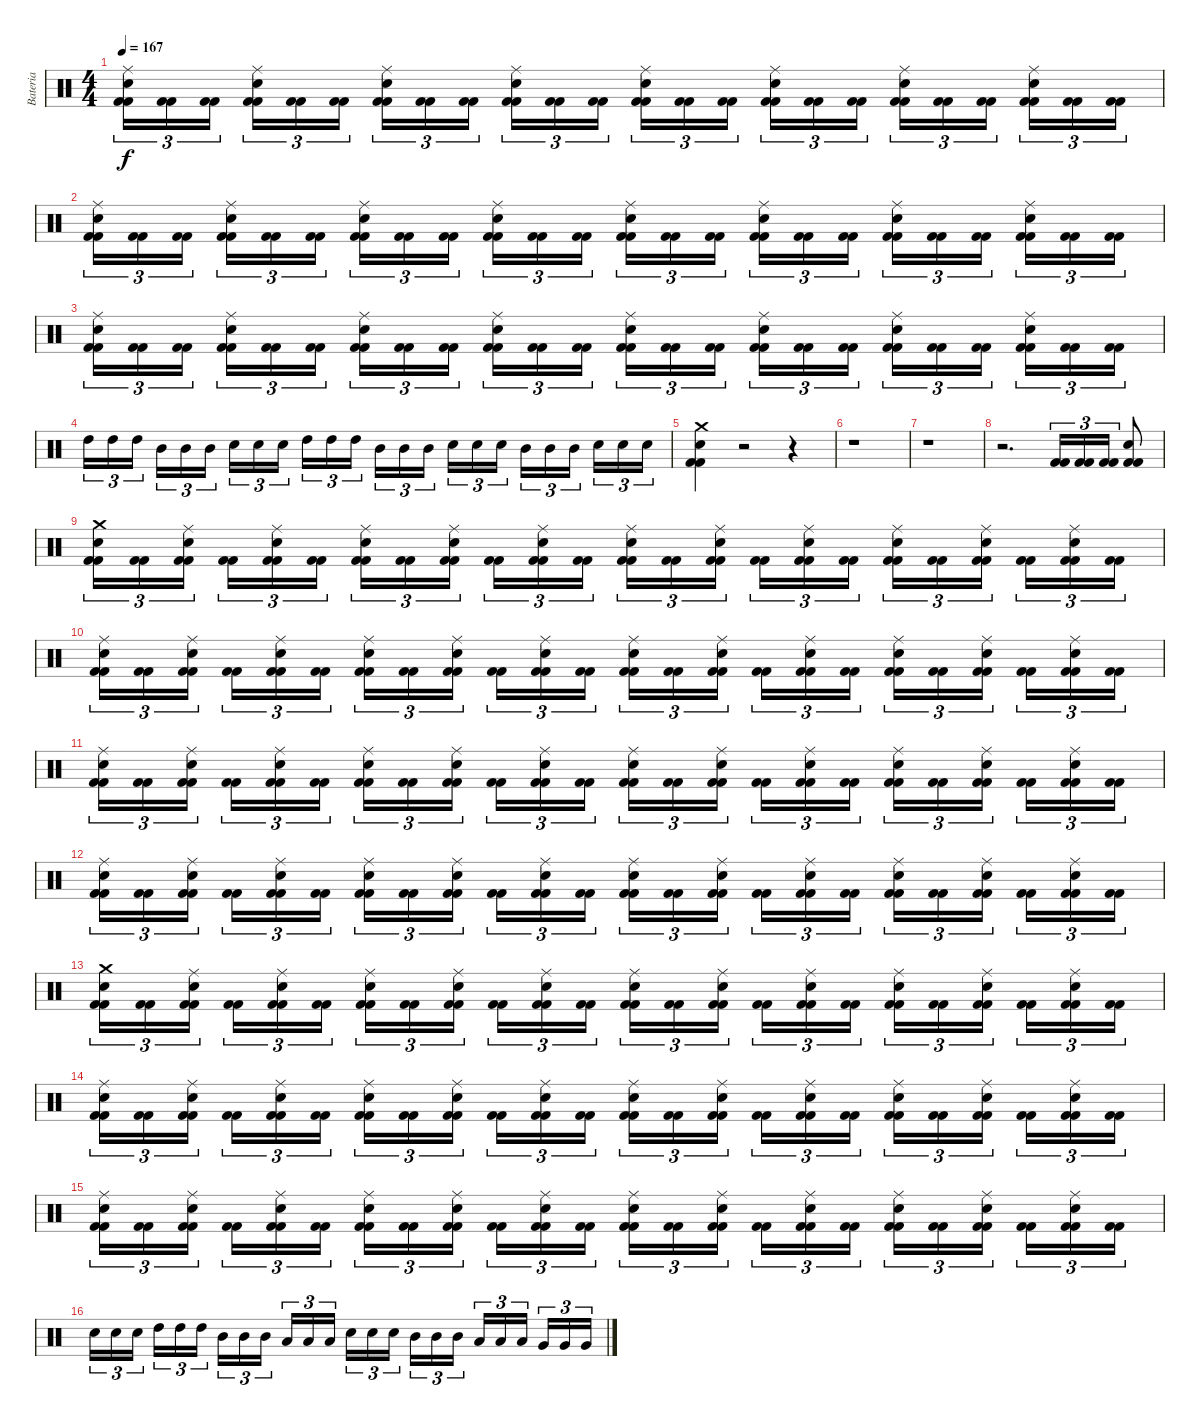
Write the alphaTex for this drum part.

\track ("Bateria" "Bateria") {instrument percussion}
\staff {score}
\articulation defaults
\ts (4 4)
\tempo 167
\clef neutral
\ks c
("Kick (hit) 2" "Kick (hit) 2" "Snare (hit) 2" "Ride (middle)").16{tu (3 2) dy f} ("Kick (hit) 2" "Kick (hit) 2").16{tu (3 2)} ("Kick (hit) 2" "Kick (hit) 2").16{tu (3 2)} ("Kick (hit) 2" "Kick (hit) 2" "Snare (hit) 2" "Ride (middle)").16{tu (3 2)} ("Kick (hit) 2" "Kick (hit) 2").16{tu (3 2)} ("Kick (hit) 2" "Kick (hit) 2").16{tu (3 2)} ("Kick (hit) 2" "Kick (hit) 2" "Snare (hit) 2" "Ride (middle)").16{tu (3 2)} ("Kick (hit) 2" "Kick (hit) 2").16{tu (3 2)} ("Kick (hit) 2" "Kick (hit) 2").16{tu (3 2)} ("Kick (hit) 2" "Kick (hit) 2" "Snare (hit) 2" "Ride (middle)").16{tu (3 2)} ("Kick (hit) 2" "Kick (hit) 2").16{tu (3 2)} ("Kick (hit) 2" "Kick (hit) 2").16{tu (3 2)} ("Kick (hit) 2" "Kick (hit) 2" "Snare (hit) 2" "Ride (middle)").16{tu (3 2)} ("Kick (hit) 2" "Kick (hit) 2").16{tu (3 2)} ("Kick (hit) 2" "Kick (hit) 2").16{tu (3 2)} ("Kick (hit) 2" "Kick (hit) 2" "Snare (hit) 2" "Ride (middle)").16{tu (3 2)} ("Kick (hit) 2" "Kick (hit) 2").16{tu (3 2)} ("Kick (hit) 2" "Kick (hit) 2").16{tu (3 2)} ("Kick (hit) 2" "Kick (hit) 2" "Snare (hit) 2" "Ride (middle)").16{tu (3 2)} ("Kick (hit) 2" "Kick (hit) 2").16{tu (3 2)} ("Kick (hit) 2" "Kick (hit) 2").16{tu (3 2)} ("Kick (hit) 2" "Kick (hit) 2" "Snare (hit) 2" "Ride (middle)").16{tu (3 2)} ("Kick (hit) 2" "Kick (hit) 2").16{tu (3 2)} ("Kick (hit) 2" "Kick (hit) 2").16{tu (3 2)} |
("Kick (hit) 2" "Kick (hit) 2" "Snare (hit) 2" "Ride (middle)").16{tu (3 2)} ("Kick (hit) 2" "Kick (hit) 2").16{tu (3 2)} ("Kick (hit) 2" "Kick (hit) 2").16{tu (3 2)} ("Kick (hit) 2" "Kick (hit) 2" "Snare (hit) 2" "Ride (middle)").16{tu (3 2)} ("Kick (hit) 2" "Kick (hit) 2").16{tu (3 2)} ("Kick (hit) 2" "Kick (hit) 2").16{tu (3 2)} ("Kick (hit) 2" "Kick (hit) 2" "Snare (hit) 2" "Ride (middle)").16{tu (3 2)} ("Kick (hit) 2" "Kick (hit) 2").16{tu (3 2)} ("Kick (hit) 2" "Kick (hit) 2").16{tu (3 2)} ("Kick (hit) 2" "Kick (hit) 2" "Snare (hit) 2" "Ride (middle)").16{tu (3 2)} ("Kick (hit) 2" "Kick (hit) 2").16{tu (3 2)} ("Kick (hit) 2" "Kick (hit) 2").16{tu (3 2)} ("Kick (hit) 2" "Kick (hit) 2" "Snare (hit) 2" "Ride (middle)").16{tu (3 2)} ("Kick (hit) 2" "Kick (hit) 2").16{tu (3 2)} ("Kick (hit) 2" "Kick (hit) 2").16{tu (3 2)} ("Kick (hit) 2" "Kick (hit) 2" "Snare (hit) 2" "Ride (middle)").16{tu (3 2)} ("Kick (hit) 2" "Kick (hit) 2").16{tu (3 2)} ("Kick (hit) 2" "Kick (hit) 2").16{tu (3 2)} ("Kick (hit) 2" "Kick (hit) 2" "Snare (hit) 2" "Ride (middle)").16{tu (3 2)} ("Kick (hit) 2" "Kick (hit) 2").16{tu (3 2)} ("Kick (hit) 2" "Kick (hit) 2").16{tu (3 2)} ("Kick (hit) 2" "Kick (hit) 2" "Snare (hit) 2" "Ride (middle)").16{tu (3 2)} ("Kick (hit) 2" "Kick (hit) 2").16{tu (3 2)} ("Kick (hit) 2" "Kick (hit) 2").16{tu (3 2)} |
("Kick (hit) 2" "Kick (hit) 2" "Snare (hit) 2" "Ride (middle)").16{tu (3 2)} ("Kick (hit) 2" "Kick (hit) 2").16{tu (3 2)} ("Kick (hit) 2" "Kick (hit) 2").16{tu (3 2)} ("Kick (hit) 2" "Kick (hit) 2" "Snare (hit) 2" "Ride (middle)").16{tu (3 2)} ("Kick (hit) 2" "Kick (hit) 2").16{tu (3 2)} ("Kick (hit) 2" "Kick (hit) 2").16{tu (3 2)} ("Kick (hit) 2" "Kick (hit) 2" "Snare (hit) 2" "Ride (middle)").16{tu (3 2)} ("Kick (hit) 2" "Kick (hit) 2").16{tu (3 2)} ("Kick (hit) 2" "Kick (hit) 2").16{tu (3 2)} ("Kick (hit) 2" "Kick (hit) 2" "Snare (hit) 2" "Ride (middle)").16{tu (3 2)} ("Kick (hit) 2" "Kick (hit) 2").16{tu (3 2)} ("Kick (hit) 2" "Kick (hit) 2").16{tu (3 2)} ("Kick (hit) 2" "Kick (hit) 2" "Snare (hit) 2" "Ride (middle)").16{tu (3 2)} ("Kick (hit) 2" "Kick (hit) 2").16{tu (3 2)} ("Kick (hit) 2" "Kick (hit) 2").16{tu (3 2)} ("Kick (hit) 2" "Kick (hit) 2" "Snare (hit) 2" "Ride (middle)").16{tu (3 2)} ("Kick (hit) 2" "Kick (hit) 2").16{tu (3 2)} ("Kick (hit) 2" "Kick (hit) 2").16{tu (3 2)} ("Kick (hit) 2" "Kick (hit) 2" "Snare (hit) 2" "Ride (middle)").16{tu (3 2)} ("Kick (hit) 2" "Kick (hit) 2").16{tu (3 2)} ("Kick (hit) 2" "Kick (hit) 2").16{tu (3 2)} ("Kick (hit) 2" "Kick (hit) 2" "Snare (hit) 2" "Ride (middle)").16{tu (3 2)} ("Kick (hit) 2" "Kick (hit) 2").16{tu (3 2)} ("Kick (hit) 2" "Kick (hit) 2").16{tu (3 2)} |
"High Tom (hit)".16{tu (3 2)} "High Tom (hit)".16{tu (3 2)} "High Tom (hit)".16{tu (3 2)} "Mid Tom (hit)".16{tu (3 2)} "Mid Tom (hit)".16{tu (3 2)} "Mid Tom (hit)".16{tu (3 2)} "Snare (hit) 2".16{tu (3 2)} "Snare (hit) 2".16{tu (3 2)} "Snare (hit) 2".16{tu (3 2)} "High Tom (hit)".16{tu (3 2)} "High Tom (hit)".16{tu (3 2)} "High Tom (hit)".16{tu (3 2)} "Mid Tom (hit)".16{tu (3 2)} "Mid Tom (hit)".16{tu (3 2)} "Mid Tom (hit)".16{tu (3 2)} "Snare (hit) 2".16{tu (3 2)} "Snare (hit) 2".16{tu (3 2)} "Snare (hit) 2".16{tu (3 2)} "Mid Tom (hit)".16{tu (3 2)} "Mid Tom (hit)".16{tu (3 2)} "Mid Tom (hit)".16{tu (3 2)} "Snare (hit) 2".16{tu (3 2)} "Snare (hit) 2".16{tu (3 2)} "Snare (hit) 2".16{tu (3 2)} |
("Kick (hit) 2" "Kick (hit) 2" "Snare (hit) 2" "Crash medium (hit)").4 r.2 r.4 |
r.1 |
r.1 |
r.2{d} ("Kick (hit) 2" "Kick (hit) 2").16{tu (3 2)} ("Kick (hit) 2" "Kick (hit) 2").16{tu (3 2)} ("Kick (hit) 2" "Kick (hit) 2").16{tu (3 2)} ("Kick (hit) 2" "Kick (hit) 2" "Snare (hit) 2").8 |
("Kick (hit) 2" "Kick (hit) 2" "Snare (hit) 2" "Crash medium (hit)").16{tu (3 2)} ("Kick (hit) 2" "Kick (hit) 2").16{tu (3 2)} ("Kick (hit) 2" "Kick (hit) 2" "Snare (hit) 2" "Ride (middle)").16{tu (3 2)} ("Kick (hit) 2" "Kick (hit) 2").16{tu (3 2)} ("Kick (hit) 2" "Kick (hit) 2" "Snare (hit) 2" "Ride (middle)").16{tu (3 2)} ("Kick (hit) 2" "Kick (hit) 2").16{tu (3 2)} ("Kick (hit) 2" "Kick (hit) 2" "Snare (hit) 2" "Ride (middle)").16{tu (3 2)} ("Kick (hit) 2" "Kick (hit) 2").16{tu (3 2)} ("Kick (hit) 2" "Kick (hit) 2" "Snare (hit) 2" "Ride (middle)").16{tu (3 2)} ("Kick (hit) 2" "Kick (hit) 2").16{tu (3 2)} ("Kick (hit) 2" "Kick (hit) 2" "Snare (hit) 2" "Ride (middle)").16{tu (3 2)} ("Kick (hit) 2" "Kick (hit) 2").16{tu (3 2)} ("Kick (hit) 2" "Kick (hit) 2" "Snare (hit) 2" "Ride (middle)").16{tu (3 2)} ("Kick (hit) 2" "Kick (hit) 2").16{tu (3 2)} ("Kick (hit) 2" "Kick (hit) 2" "Snare (hit) 2" "Ride (middle)").16{tu (3 2)} ("Kick (hit) 2" "Kick (hit) 2").16{tu (3 2)} ("Kick (hit) 2" "Kick (hit) 2" "Snare (hit) 2" "Ride (middle)").16{tu (3 2)} ("Kick (hit) 2" "Kick (hit) 2").16{tu (3 2)} ("Kick (hit) 2" "Kick (hit) 2" "Snare (hit) 2" "Ride (middle)").16{tu (3 2)} ("Kick (hit) 2" "Kick (hit) 2").16{tu (3 2)} ("Kick (hit) 2" "Kick (hit) 2" "Snare (hit) 2" "Ride (middle)").16{tu (3 2)} ("Kick (hit) 2" "Kick (hit) 2").16{tu (3 2)} ("Kick (hit) 2" "Kick (hit) 2" "Snare (hit) 2" "Ride (middle)").16{tu (3 2)} ("Kick (hit) 2" "Kick (hit) 2").16{tu (3 2)} |
("Kick (hit) 2" "Kick (hit) 2" "Snare (hit) 2" "Ride (middle)").16{tu (3 2)} ("Kick (hit) 2" "Kick (hit) 2").16{tu (3 2)} ("Kick (hit) 2" "Kick (hit) 2" "Snare (hit) 2" "Ride (middle)").16{tu (3 2)} ("Kick (hit) 2" "Kick (hit) 2").16{tu (3 2)} ("Kick (hit) 2" "Kick (hit) 2" "Snare (hit) 2" "Ride (middle)").16{tu (3 2)} ("Kick (hit) 2" "Kick (hit) 2").16{tu (3 2)} ("Kick (hit) 2" "Kick (hit) 2" "Snare (hit) 2" "Ride (middle)").16{tu (3 2)} ("Kick (hit) 2" "Kick (hit) 2").16{tu (3 2)} ("Kick (hit) 2" "Kick (hit) 2" "Snare (hit) 2" "Ride (middle)").16{tu (3 2)} ("Kick (hit) 2" "Kick (hit) 2").16{tu (3 2)} ("Kick (hit) 2" "Kick (hit) 2" "Snare (hit) 2" "Ride (middle)").16{tu (3 2)} ("Kick (hit) 2" "Kick (hit) 2").16{tu (3 2)} ("Kick (hit) 2" "Kick (hit) 2" "Snare (hit) 2" "Ride (middle)").16{tu (3 2)} ("Kick (hit) 2" "Kick (hit) 2").16{tu (3 2)} ("Kick (hit) 2" "Kick (hit) 2" "Snare (hit) 2" "Ride (middle)").16{tu (3 2)} ("Kick (hit) 2" "Kick (hit) 2").16{tu (3 2)} ("Kick (hit) 2" "Kick (hit) 2" "Snare (hit) 2" "Ride (middle)").16{tu (3 2)} ("Kick (hit) 2" "Kick (hit) 2").16{tu (3 2)} ("Kick (hit) 2" "Kick (hit) 2" "Snare (hit) 2" "Ride (middle)").16{tu (3 2)} ("Kick (hit) 2" "Kick (hit) 2").16{tu (3 2)} ("Kick (hit) 2" "Kick (hit) 2" "Snare (hit) 2" "Ride (middle)").16{tu (3 2)} ("Kick (hit) 2" "Kick (hit) 2").16{tu (3 2)} ("Kick (hit) 2" "Kick (hit) 2" "Snare (hit) 2" "Ride (middle)").16{tu (3 2)} ("Kick (hit) 2" "Kick (hit) 2").16{tu (3 2)} |
("Kick (hit) 2" "Kick (hit) 2" "Snare (hit) 2" "Ride (middle)").16{tu (3 2)} ("Kick (hit) 2" "Kick (hit) 2").16{tu (3 2)} ("Kick (hit) 2" "Kick (hit) 2" "Snare (hit) 2" "Ride (middle)").16{tu (3 2)} ("Kick (hit) 2" "Kick (hit) 2").16{tu (3 2)} ("Kick (hit) 2" "Kick (hit) 2" "Snare (hit) 2" "Ride (middle)").16{tu (3 2)} ("Kick (hit) 2" "Kick (hit) 2").16{tu (3 2)} ("Kick (hit) 2" "Kick (hit) 2" "Snare (hit) 2" "Ride (middle)").16{tu (3 2)} ("Kick (hit) 2" "Kick (hit) 2").16{tu (3 2)} ("Kick (hit) 2" "Kick (hit) 2" "Snare (hit) 2" "Ride (middle)").16{tu (3 2)} ("Kick (hit) 2" "Kick (hit) 2").16{tu (3 2)} ("Kick (hit) 2" "Kick (hit) 2" "Snare (hit) 2" "Ride (middle)").16{tu (3 2)} ("Kick (hit) 2" "Kick (hit) 2").16{tu (3 2)} ("Kick (hit) 2" "Kick (hit) 2" "Snare (hit) 2" "Ride (middle)").16{tu (3 2)} ("Kick (hit) 2" "Kick (hit) 2").16{tu (3 2)} ("Kick (hit) 2" "Kick (hit) 2" "Snare (hit) 2" "Ride (middle)").16{tu (3 2)} ("Kick (hit) 2" "Kick (hit) 2").16{tu (3 2)} ("Kick (hit) 2" "Kick (hit) 2" "Snare (hit) 2" "Ride (middle)").16{tu (3 2)} ("Kick (hit) 2" "Kick (hit) 2").16{tu (3 2)} ("Kick (hit) 2" "Kick (hit) 2" "Snare (hit) 2" "Ride (middle)").16{tu (3 2)} ("Kick (hit) 2" "Kick (hit) 2").16{tu (3 2)} ("Kick (hit) 2" "Kick (hit) 2" "Snare (hit) 2" "Ride (middle)").16{tu (3 2)} ("Kick (hit) 2" "Kick (hit) 2").16{tu (3 2)} ("Kick (hit) 2" "Kick (hit) 2" "Snare (hit) 2" "Ride (middle)").16{tu (3 2)} ("Kick (hit) 2" "Kick (hit) 2").16{tu (3 2)} |
("Kick (hit) 2" "Kick (hit) 2" "Snare (hit) 2" "Ride (middle)").16{tu (3 2)} ("Kick (hit) 2" "Kick (hit) 2").16{tu (3 2)} ("Kick (hit) 2" "Kick (hit) 2" "Snare (hit) 2" "Ride (middle)").16{tu (3 2)} ("Kick (hit) 2" "Kick (hit) 2").16{tu (3 2)} ("Kick (hit) 2" "Kick (hit) 2" "Snare (hit) 2" "Ride (middle)").16{tu (3 2)} ("Kick (hit) 2" "Kick (hit) 2").16{tu (3 2)} ("Kick (hit) 2" "Kick (hit) 2" "Snare (hit) 2" "Ride (middle)").16{tu (3 2)} ("Kick (hit) 2" "Kick (hit) 2").16{tu (3 2)} ("Kick (hit) 2" "Kick (hit) 2" "Snare (hit) 2" "Ride (middle)").16{tu (3 2)} ("Kick (hit) 2" "Kick (hit) 2").16{tu (3 2)} ("Kick (hit) 2" "Kick (hit) 2" "Snare (hit) 2" "Ride (middle)").16{tu (3 2)} ("Kick (hit) 2" "Kick (hit) 2").16{tu (3 2)} ("Kick (hit) 2" "Kick (hit) 2" "Snare (hit) 2" "Ride (middle)").16{tu (3 2)} ("Kick (hit) 2" "Kick (hit) 2").16{tu (3 2)} ("Kick (hit) 2" "Kick (hit) 2" "Snare (hit) 2" "Ride (middle)").16{tu (3 2)} ("Kick (hit) 2" "Kick (hit) 2").16{tu (3 2)} ("Kick (hit) 2" "Kick (hit) 2" "Snare (hit) 2" "Ride (middle)").16{tu (3 2)} ("Kick (hit) 2" "Kick (hit) 2").16{tu (3 2)} ("Kick (hit) 2" "Kick (hit) 2" "Snare (hit) 2" "Ride (middle)").16{tu (3 2)} ("Kick (hit) 2" "Kick (hit) 2").16{tu (3 2)} ("Kick (hit) 2" "Kick (hit) 2" "Snare (hit) 2" "Ride (middle)").16{tu (3 2)} ("Kick (hit) 2" "Kick (hit) 2").16{tu (3 2)} ("Kick (hit) 2" "Kick (hit) 2" "Snare (hit) 2" "Ride (middle)").16{tu (3 2)} ("Kick (hit) 2" "Kick (hit) 2").16{tu (3 2)} |
("Kick (hit) 2" "Kick (hit) 2" "Snare (hit) 2" "Crash medium (hit)").16{tu (3 2)} ("Kick (hit) 2" "Kick (hit) 2").16{tu (3 2)} ("Kick (hit) 2" "Kick (hit) 2" "Snare (hit) 2" "Ride (middle)").16{tu (3 2)} ("Kick (hit) 2" "Kick (hit) 2").16{tu (3 2)} ("Kick (hit) 2" "Kick (hit) 2" "Snare (hit) 2" "Ride (middle)").16{tu (3 2)} ("Kick (hit) 2" "Kick (hit) 2").16{tu (3 2)} ("Kick (hit) 2" "Kick (hit) 2" "Snare (hit) 2" "Ride (middle)").16{tu (3 2)} ("Kick (hit) 2" "Kick (hit) 2").16{tu (3 2)} ("Kick (hit) 2" "Kick (hit) 2" "Snare (hit) 2" "Ride (middle)").16{tu (3 2)} ("Kick (hit) 2" "Kick (hit) 2").16{tu (3 2)} ("Kick (hit) 2" "Kick (hit) 2" "Snare (hit) 2" "Ride (middle)").16{tu (3 2)} ("Kick (hit) 2" "Kick (hit) 2").16{tu (3 2)} ("Kick (hit) 2" "Kick (hit) 2" "Snare (hit) 2" "Ride (middle)").16{tu (3 2)} ("Kick (hit) 2" "Kick (hit) 2").16{tu (3 2)} ("Kick (hit) 2" "Kick (hit) 2" "Snare (hit) 2" "Ride (middle)").16{tu (3 2)} ("Kick (hit) 2" "Kick (hit) 2").16{tu (3 2)} ("Kick (hit) 2" "Kick (hit) 2" "Snare (hit) 2" "Ride (middle)").16{tu (3 2)} ("Kick (hit) 2" "Kick (hit) 2").16{tu (3 2)} ("Kick (hit) 2" "Kick (hit) 2" "Snare (hit) 2" "Ride (middle)").16{tu (3 2)} ("Kick (hit) 2" "Kick (hit) 2").16{tu (3 2)} ("Kick (hit) 2" "Kick (hit) 2" "Snare (hit) 2" "Ride (middle)").16{tu (3 2)} ("Kick (hit) 2" "Kick (hit) 2").16{tu (3 2)} ("Kick (hit) 2" "Kick (hit) 2" "Snare (hit) 2" "Ride (middle)").16{tu (3 2)} ("Kick (hit) 2" "Kick (hit) 2").16{tu (3 2)} |
("Kick (hit) 2" "Kick (hit) 2" "Snare (hit) 2" "Ride (middle)").16{tu (3 2)} ("Kick (hit) 2" "Kick (hit) 2").16{tu (3 2)} ("Kick (hit) 2" "Kick (hit) 2" "Snare (hit) 2" "Ride (middle)").16{tu (3 2)} ("Kick (hit) 2" "Kick (hit) 2").16{tu (3 2)} ("Kick (hit) 2" "Kick (hit) 2" "Snare (hit) 2" "Ride (middle)").16{tu (3 2)} ("Kick (hit) 2" "Kick (hit) 2").16{tu (3 2)} ("Kick (hit) 2" "Kick (hit) 2" "Snare (hit) 2" "Ride (middle)").16{tu (3 2)} ("Kick (hit) 2" "Kick (hit) 2").16{tu (3 2)} ("Kick (hit) 2" "Kick (hit) 2" "Snare (hit) 2" "Ride (middle)").16{tu (3 2)} ("Kick (hit) 2" "Kick (hit) 2").16{tu (3 2)} ("Kick (hit) 2" "Kick (hit) 2" "Snare (hit) 2" "Ride (middle)").16{tu (3 2)} ("Kick (hit) 2" "Kick (hit) 2").16{tu (3 2)} ("Kick (hit) 2" "Kick (hit) 2" "Snare (hit) 2" "Ride (middle)").16{tu (3 2)} ("Kick (hit) 2" "Kick (hit) 2").16{tu (3 2)} ("Kick (hit) 2" "Kick (hit) 2" "Snare (hit) 2" "Ride (middle)").16{tu (3 2)} ("Kick (hit) 2" "Kick (hit) 2").16{tu (3 2)} ("Kick (hit) 2" "Kick (hit) 2" "Snare (hit) 2" "Ride (middle)").16{tu (3 2)} ("Kick (hit) 2" "Kick (hit) 2").16{tu (3 2)} ("Kick (hit) 2" "Kick (hit) 2" "Snare (hit) 2" "Ride (middle)").16{tu (3 2)} ("Kick (hit) 2" "Kick (hit) 2").16{tu (3 2)} ("Kick (hit) 2" "Kick (hit) 2" "Snare (hit) 2" "Ride (middle)").16{tu (3 2)} ("Kick (hit) 2" "Kick (hit) 2").16{tu (3 2)} ("Kick (hit) 2" "Kick (hit) 2" "Snare (hit) 2" "Ride (middle)").16{tu (3 2)} ("Kick (hit) 2" "Kick (hit) 2").16{tu (3 2)} |
("Kick (hit) 2" "Kick (hit) 2" "Snare (hit) 2" "Ride (middle)").16{tu (3 2)} ("Kick (hit) 2" "Kick (hit) 2").16{tu (3 2)} ("Kick (hit) 2" "Kick (hit) 2" "Snare (hit) 2" "Ride (middle)").16{tu (3 2)} ("Kick (hit) 2" "Kick (hit) 2").16{tu (3 2)} ("Kick (hit) 2" "Kick (hit) 2" "Snare (hit) 2" "Ride (middle)").16{tu (3 2)} ("Kick (hit) 2" "Kick (hit) 2").16{tu (3 2)} ("Kick (hit) 2" "Kick (hit) 2" "Snare (hit) 2" "Ride (middle)").16{tu (3 2)} ("Kick (hit) 2" "Kick (hit) 2").16{tu (3 2)} ("Kick (hit) 2" "Kick (hit) 2" "Snare (hit) 2" "Ride (middle)").16{tu (3 2)} ("Kick (hit) 2" "Kick (hit) 2").16{tu (3 2)} ("Kick (hit) 2" "Kick (hit) 2" "Snare (hit) 2" "Ride (middle)").16{tu (3 2)} ("Kick (hit) 2" "Kick (hit) 2").16{tu (3 2)} ("Kick (hit) 2" "Kick (hit) 2" "Snare (hit) 2" "Ride (middle)").16{tu (3 2)} ("Kick (hit) 2" "Kick (hit) 2").16{tu (3 2)} ("Kick (hit) 2" "Kick (hit) 2" "Snare (hit) 2" "Ride (middle)").16{tu (3 2)} ("Kick (hit) 2" "Kick (hit) 2").16{tu (3 2)} ("Kick (hit) 2" "Kick (hit) 2" "Snare (hit) 2" "Ride (middle)").16{tu (3 2)} ("Kick (hit) 2" "Kick (hit) 2").16{tu (3 2)} ("Kick (hit) 2" "Kick (hit) 2" "Snare (hit) 2" "Ride (middle)").16{tu (3 2)} ("Kick (hit) 2" "Kick (hit) 2").16{tu (3 2)} ("Kick (hit) 2" "Kick (hit) 2" "Snare (hit) 2" "Ride (middle)").16{tu (3 2)} ("Kick (hit) 2" "Kick (hit) 2").16{tu (3 2)} ("Kick (hit) 2" "Kick (hit) 2" "Snare (hit) 2" "Ride (middle)").16{tu (3 2)} ("Kick (hit) 2" "Kick (hit) 2").16{tu (3 2)} |
"Snare (hit) 2".16{tu (3 2)} "Snare (hit) 2".16{tu (3 2)} "Snare (hit) 2".16{tu (3 2)} "High Tom (hit)".16{tu (3 2)} "High Tom (hit)".16{tu (3 2)} "High Tom (hit)".16{tu (3 2)} "Mid Tom (hit)".16{tu (3 2)} "Mid Tom (hit)".16{tu (3 2)} "Mid Tom (hit)".16{tu (3 2)} "Low Tom (hit)".16{tu (3 2)} "Low Tom (hit)".16{tu (3 2)} "Low Tom (hit)".16{tu (3 2)} "Snare (hit) 2".16{tu (3 2)} "Snare (hit) 2".16{tu (3 2)} "Snare (hit) 2".16{tu (3 2)} "Mid Tom (hit)".16{tu (3 2)} "Mid Tom (hit)".16{tu (3 2)} "Mid Tom (hit)".16{tu (3 2)} "Low Tom (hit)".16{tu (3 2)} "Low Tom (hit)".16{tu (3 2)} "Low Tom (hit)".16{tu (3 2)} "Very Low Tom (hit)".16{tu (3 2)} "Very Low Tom (hit)".16{tu (3 2)} "Very Low Tom (hit)".16{tu (3 2)}
